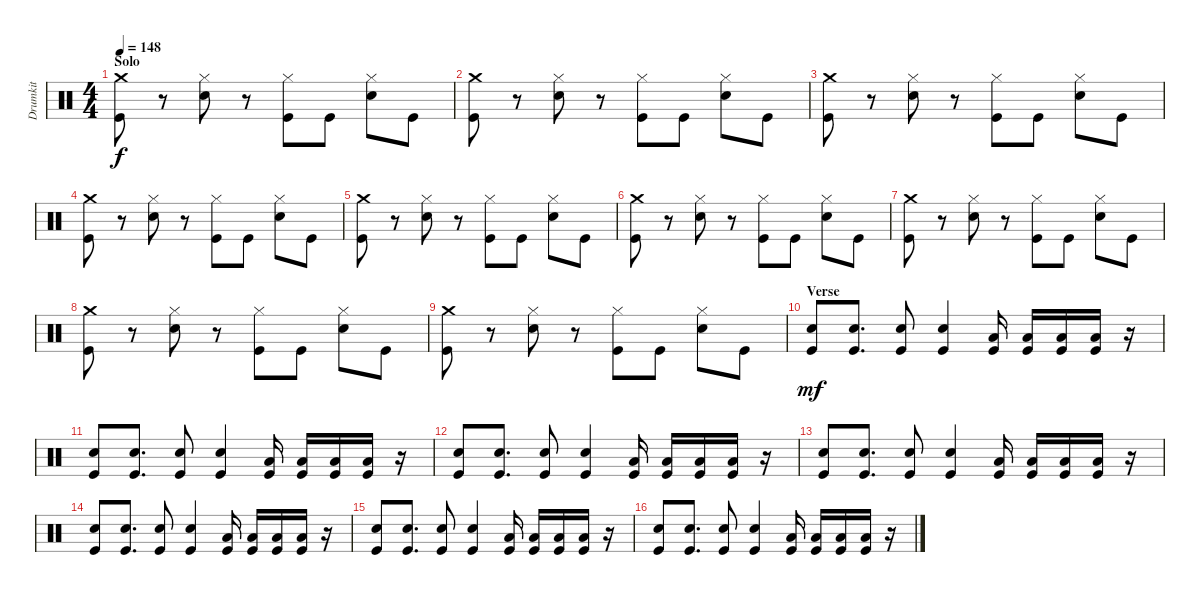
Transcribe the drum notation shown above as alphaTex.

\track ("Drumkit" "Drumkit") {instrument percussion}
\staff {score}
\articulation defaults
\ts (4 4)
\section ("" "Solo")
\tempo 148
\clef neutral
\ks c
("Crash medium (hit)" "Kick (hit)").8{dy f} r.8 ("Hi-Hat (closed)" "Snare (hit) 2").8 r.8 ("Hi-Hat (closed)" "Kick (hit)").8 "Kick (hit)".8 ("Hi-Hat (closed)" "Snare (hit) 2").8 "Kick (hit)".8 |
("Crash medium (hit)" "Kick (hit)").8 r.8 ("Hi-Hat (closed)" "Snare (hit) 2").8 r.8 ("Hi-Hat (closed)" "Kick (hit)").8 "Kick (hit)".8 ("Hi-Hat (closed)" "Snare (hit) 2").8 "Kick (hit)".8 |
("Crash medium (hit)" "Kick (hit)").8 r.8 ("Hi-Hat (closed)" "Snare (hit) 2").8 r.8 ("Hi-Hat (closed)" "Kick (hit)").8 "Kick (hit)".8 ("Hi-Hat (closed)" "Snare (hit) 2").8 "Kick (hit)".8 |
("Crash medium (hit)" "Kick (hit)").8 r.8 ("Hi-Hat (closed)" "Snare (hit) 2").8 r.8 ("Hi-Hat (closed)" "Kick (hit)").8 "Kick (hit)".8 ("Hi-Hat (closed)" "Snare (hit) 2").8 "Kick (hit)".8 |
("Crash medium (hit)" "Kick (hit)").8 r.8 ("Hi-Hat (closed)" "Snare (hit) 2").8 r.8 ("Hi-Hat (closed)" "Kick (hit)").8 "Kick (hit)".8 ("Hi-Hat (closed)" "Snare (hit) 2").8 "Kick (hit)".8 |
("Crash medium (hit)" "Kick (hit)").8 r.8 ("Hi-Hat (closed)" "Snare (hit) 2").8 r.8 ("Hi-Hat (closed)" "Kick (hit)").8 "Kick (hit)".8 ("Hi-Hat (closed)" "Snare (hit) 2").8 "Kick (hit)".8 |
("Crash medium (hit)" "Kick (hit)").8 r.8 ("Hi-Hat (closed)" "Snare (hit) 2").8 r.8 ("Hi-Hat (closed)" "Kick (hit)").8 "Kick (hit)".8 ("Hi-Hat (closed)" "Snare (hit) 2").8 "Kick (hit)".8 |
("Crash medium (hit)" "Kick (hit)").8 r.8 ("Hi-Hat (closed)" "Snare (hit) 2").8 r.8 ("Hi-Hat (closed)" "Kick (hit)").8 "Kick (hit)".8 ("Hi-Hat (closed)" "Snare (hit) 2").8 "Kick (hit)".8 |
("Crash medium (hit)" "Kick (hit)").8 r.8 ("Hi-Hat (closed)" "Snare (hit) 2").8 r.8 ("Hi-Hat (closed)" "Kick (hit)").8 "Kick (hit)".8 ("Hi-Hat (closed)" "Snare (hit) 2").8 "Kick (hit)".8 |
\section ("" "Verse")
("Snare (hit) 2" "Kick (hit)").8{dy mf} ("Snare (hit) 2" "Kick (hit)").8{d} ("Snare (hit) 2" "Kick (hit)").8 ("Snare (hit) 2" "Kick (hit)").4 ("Kick (hit)" "Low Tom (hit)").16 ("Kick (hit)" "Low Tom (hit)").16 ("Kick (hit)" "Low Tom (hit)").16 ("Kick (hit)" "Low Tom (hit)").16 r.16 |
("Snare (hit) 2" "Kick (hit)").8 ("Snare (hit) 2" "Kick (hit)").8{d} ("Snare (hit) 2" "Kick (hit)").8 ("Snare (hit) 2" "Kick (hit)").4 ("Kick (hit)" "Low Tom (hit)").16 ("Kick (hit)" "Low Tom (hit)").16 ("Kick (hit)" "Low Tom (hit)").16 ("Kick (hit)" "Low Tom (hit)").16 r.16 |
("Snare (hit) 2" "Kick (hit)").8 ("Snare (hit) 2" "Kick (hit)").8{d} ("Snare (hit) 2" "Kick (hit)").8 ("Snare (hit) 2" "Kick (hit)").4 ("Kick (hit)" "Low Tom (hit)").16 ("Kick (hit)" "Low Tom (hit)").16 ("Kick (hit)" "Low Tom (hit)").16 ("Kick (hit)" "Low Tom (hit)").16 r.16 |
("Snare (hit) 2" "Kick (hit)").8 ("Snare (hit) 2" "Kick (hit)").8{d} ("Snare (hit) 2" "Kick (hit)").8 ("Snare (hit) 2" "Kick (hit)").4 ("Kick (hit)" "Low Tom (hit)").16 ("Kick (hit)" "Low Tom (hit)").16 ("Kick (hit)" "Low Tom (hit)").16 ("Kick (hit)" "Low Tom (hit)").16 r.16 |
("Snare (hit) 2" "Kick (hit)").8 ("Snare (hit) 2" "Kick (hit)").8{d} ("Snare (hit) 2" "Kick (hit)").8 ("Snare (hit) 2" "Kick (hit)").4 ("Kick (hit)" "Low Tom (hit)").16 ("Kick (hit)" "Low Tom (hit)").16 ("Kick (hit)" "Low Tom (hit)").16 ("Kick (hit)" "Low Tom (hit)").16 r.16 |
("Snare (hit) 2" "Kick (hit)").8 ("Snare (hit) 2" "Kick (hit)").8{d} ("Snare (hit) 2" "Kick (hit)").8 ("Snare (hit) 2" "Kick (hit)").4 ("Kick (hit)" "Low Tom (hit)").16 ("Kick (hit)" "Low Tom (hit)").16 ("Kick (hit)" "Low Tom (hit)").16 ("Kick (hit)" "Low Tom (hit)").16 r.16 |
("Snare (hit) 2" "Kick (hit)").8 ("Snare (hit) 2" "Kick (hit)").8{d} ("Snare (hit) 2" "Kick (hit)").8 ("Snare (hit) 2" "Kick (hit)").4 ("Kick (hit)" "Low Tom (hit)").16 ("Kick (hit)" "Low Tom (hit)").16 ("Kick (hit)" "Low Tom (hit)").16 ("Kick (hit)" "Low Tom (hit)").16 r.16
